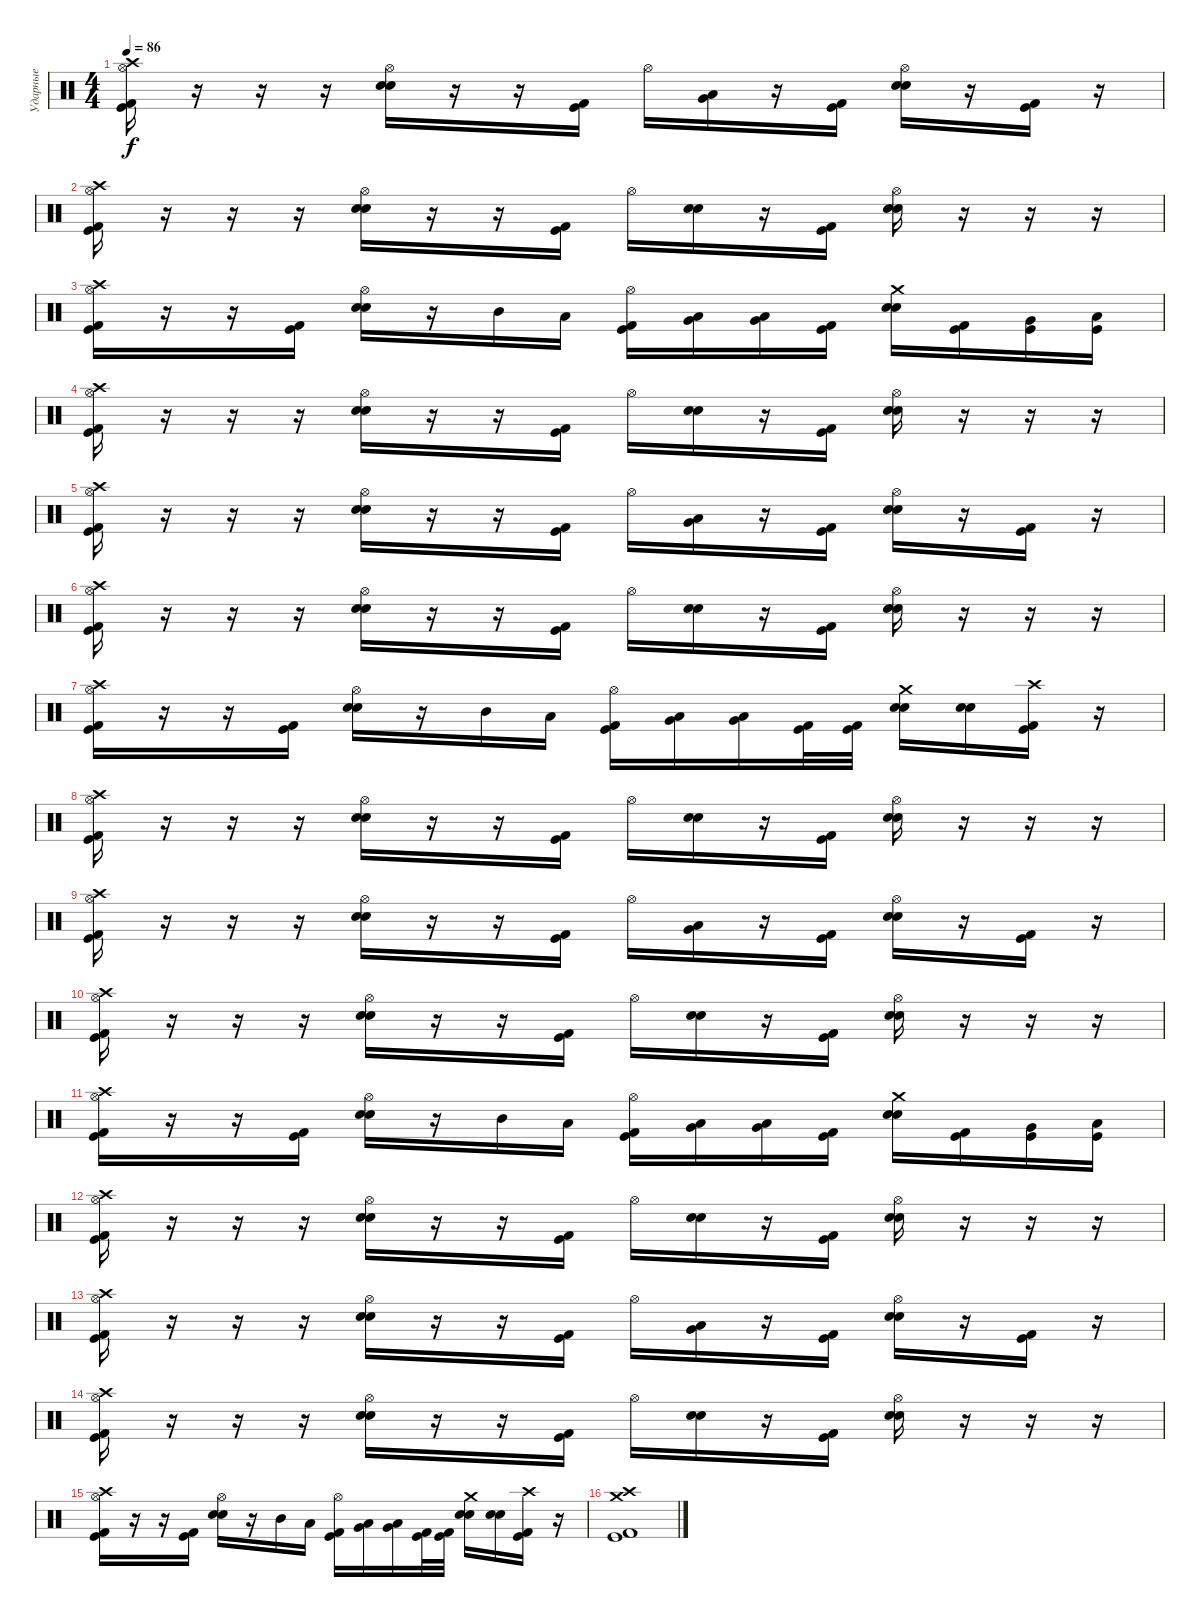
\track ("Ударные" "Ударные") {instrument percussion}
\staff {score}
\articulation defaults
\ts (4 4)
\tempo 86
\clef neutral
\ks c
("Hi-Hat (open)" "Crash high (hit)" "Kick (hit) 2" "Kick (hit)").16{dy f} r.16 r.16 r.16 ("Hi-Hat (open)" "Snare (hit)" "Electric Snare (hit)").16 r.16 r.16 ("Kick (hit) 2" "Kick (hit)").16 "Hi-Hat (open)".16 ("Low Tom (hit)" "Very Low Tom (hit)").16 r.16 ("Kick (hit) 2" "Kick (hit)").16 ("Hi-Hat (open)" "Snare (hit)" "Electric Snare (hit)").16 r.16 ("Kick (hit) 2" "Kick (hit)").16 r.16 |
("Hi-Hat (open)" "Crash high (hit)" "Kick (hit) 2" "Kick (hit)").16 r.16 r.16 r.16 ("Hi-Hat (open)" "Snare (hit)" "Electric Snare (hit)").16 r.16 r.16 ("Kick (hit) 2" "Kick (hit)").16 "Hi-Hat (open)".16 ("Electric Snare (hit)" "Snare (hit)").16 r.16 ("Kick (hit) 2" "Kick (hit)").16 ("Hi-Hat (open)" "Snare (hit)" "Electric Snare (hit)").16 r.16 r.16 r.16 |
("Hi-Hat (open)" "Crash high (hit)" "Kick (hit) 2" "Kick (hit)").16 r.16 r.16 ("Kick (hit) 2" "Kick (hit)").16 ("Hi-Hat (open)" "Snare (hit)" "Electric Snare (hit)").16 r.16 "Mid Tom (hit)".16 "Low Tom (hit)".16 ("Hi-Hat (open)" "Kick (hit) 2" "Kick (hit)").16 ("Low Tom (hit)" "Very Low Tom (hit)").16 ("Very Low Tom (hit)" "Low Floor Tom (hit)").16 ("Kick (hit) 2" "Kick (hit)").16 ("Crash medium (hit)" "Snare (hit)" "Electric Snare (hit)").16 ("Kick (hit) 2" "Kick (hit)").16 ("Very Low Tom (hit)" "Kick (hit)").16 ("Low Floor Tom (hit)" "Kick (hit)").16 |
("Hi-Hat (open)" "Crash high (hit)" "Kick (hit) 2" "Kick (hit)").16 r.16 r.16 r.16 ("Hi-Hat (open)" "Snare (hit)" "Electric Snare (hit)").16 r.16 r.16 ("Kick (hit) 2" "Kick (hit)").16 "Hi-Hat (open)".16 ("Electric Snare (hit)" "Snare (hit)").16 r.16 ("Kick (hit) 2" "Kick (hit)").16 ("Hi-Hat (open)" "Snare (hit)" "Electric Snare (hit)").16 r.16 r.16 r.16 |
("Hi-Hat (open)" "Crash high (hit)" "Kick (hit) 2" "Kick (hit)").16 r.16 r.16 r.16 ("Hi-Hat (open)" "Snare (hit)" "Electric Snare (hit)").16 r.16 r.16 ("Kick (hit) 2" "Kick (hit)").16 "Hi-Hat (open)".16 ("Low Tom (hit)" "Very Low Tom (hit)").16 r.16 ("Kick (hit) 2" "Kick (hit)").16 ("Hi-Hat (open)" "Snare (hit)" "Electric Snare (hit)").16 r.16 ("Kick (hit) 2" "Kick (hit)").16 r.16 |
("Hi-Hat (open)" "Crash high (hit)" "Kick (hit) 2" "Kick (hit)").16 r.16 r.16 r.16 ("Hi-Hat (open)" "Snare (hit)" "Electric Snare (hit)").16 r.16 r.16 ("Kick (hit) 2" "Kick (hit)").16 "Hi-Hat (open)".16 ("Electric Snare (hit)" "Snare (hit)").16 r.16 ("Kick (hit) 2" "Kick (hit)").16 ("Hi-Hat (open)" "Snare (hit)" "Electric Snare (hit)").16 r.16 r.16 r.16 |
("Hi-Hat (open)" "Crash high (hit)" "Kick (hit) 2" "Kick (hit)").16 r.16 r.16 ("Kick (hit) 2" "Kick (hit)").16 ("Hi-Hat (open)" "Snare (hit)" "Electric Snare (hit)").16 r.16 "Mid Tom (hit)".16 "Low Tom (hit)".16 ("Hi-Hat (open)" "Kick (hit) 2" "Kick (hit)").16 ("Low Tom (hit)" "Very Low Tom (hit)").16 ("Very Low Tom (hit)" "Low Floor Tom (hit)").16 ("Kick (hit) 2" "Kick (hit)").32 ("Kick (hit) 2" "Kick (hit)").32 ("Crash medium (hit)" "Snare (hit)" "Electric Snare (hit)").16 ("Electric Snare (hit)" "Snare (hit)").16 ("Crash high (hit)" "Kick (hit) 2" "Kick (hit)").16 r.16 |
("Hi-Hat (open)" "Crash high (hit)" "Kick (hit) 2" "Kick (hit)").16 r.16 r.16 r.16 ("Hi-Hat (open)" "Snare (hit)" "Electric Snare (hit)").16 r.16 r.16 ("Kick (hit) 2" "Kick (hit)").16 "Hi-Hat (open)".16 ("Electric Snare (hit)" "Snare (hit)").16 r.16 ("Kick (hit) 2" "Kick (hit)").16 ("Hi-Hat (open)" "Snare (hit)" "Electric Snare (hit)").16 r.16 r.16 r.16 |
("Hi-Hat (open)" "Crash high (hit)" "Kick (hit) 2" "Kick (hit)").16 r.16 r.16 r.16 ("Hi-Hat (open)" "Snare (hit)" "Electric Snare (hit)").16 r.16 r.16 ("Kick (hit) 2" "Kick (hit)").16 "Hi-Hat (open)".16 ("Low Tom (hit)" "Very Low Tom (hit)").16 r.16 ("Kick (hit) 2" "Kick (hit)").16 ("Hi-Hat (open)" "Snare (hit)" "Electric Snare (hit)").16 r.16 ("Kick (hit) 2" "Kick (hit)").16 r.16 |
("Hi-Hat (open)" "Crash high (hit)" "Kick (hit) 2" "Kick (hit)").16 r.16 r.16 r.16 ("Hi-Hat (open)" "Snare (hit)" "Electric Snare (hit)").16 r.16 r.16 ("Kick (hit) 2" "Kick (hit)").16 "Hi-Hat (open)".16 ("Electric Snare (hit)" "Snare (hit)").16 r.16 ("Kick (hit) 2" "Kick (hit)").16 ("Hi-Hat (open)" "Snare (hit)" "Electric Snare (hit)").16 r.16 r.16 r.16 |
("Hi-Hat (open)" "Crash high (hit)" "Kick (hit) 2" "Kick (hit)").16 r.16 r.16 ("Kick (hit) 2" "Kick (hit)").16 ("Hi-Hat (open)" "Snare (hit)" "Electric Snare (hit)").16 r.16 "Mid Tom (hit)".16 "Low Tom (hit)".16 ("Hi-Hat (open)" "Kick (hit) 2" "Kick (hit)").16 ("Low Tom (hit)" "Very Low Tom (hit)").16 ("Very Low Tom (hit)" "Low Floor Tom (hit)").16 ("Kick (hit) 2" "Kick (hit)").16 ("Crash medium (hit)" "Snare (hit)" "Electric Snare (hit)").16 ("Kick (hit) 2" "Kick (hit)").16 ("Very Low Tom (hit)" "Kick (hit)").16 ("Low Floor Tom (hit)" "Kick (hit)").16 |
("Hi-Hat (open)" "Crash high (hit)" "Kick (hit) 2" "Kick (hit)").16 r.16 r.16 r.16 ("Hi-Hat (open)" "Snare (hit)" "Electric Snare (hit)").16 r.16 r.16 ("Kick (hit) 2" "Kick (hit)").16 "Hi-Hat (open)".16 ("Electric Snare (hit)" "Snare (hit)").16 r.16 ("Kick (hit) 2" "Kick (hit)").16 ("Hi-Hat (open)" "Snare (hit)" "Electric Snare (hit)").16 r.16 r.16 r.16 |
("Hi-Hat (open)" "Crash high (hit)" "Kick (hit) 2" "Kick (hit)").16 r.16 r.16 r.16 ("Hi-Hat (open)" "Snare (hit)" "Electric Snare (hit)").16 r.16 r.16 ("Kick (hit) 2" "Kick (hit)").16 "Hi-Hat (open)".16 ("Low Tom (hit)" "Very Low Tom (hit)").16 r.16 ("Kick (hit) 2" "Kick (hit)").16 ("Hi-Hat (open)" "Snare (hit)" "Electric Snare (hit)").16 r.16 ("Kick (hit) 2" "Kick (hit)").16 r.16 |
("Hi-Hat (open)" "Crash high (hit)" "Kick (hit) 2" "Kick (hit)").16 r.16 r.16 r.16 ("Hi-Hat (open)" "Snare (hit)" "Electric Snare (hit)").16 r.16 r.16 ("Kick (hit) 2" "Kick (hit)").16 "Hi-Hat (open)".16 ("Electric Snare (hit)" "Snare (hit)").16 r.16 ("Kick (hit) 2" "Kick (hit)").16 ("Hi-Hat (open)" "Snare (hit)" "Electric Snare (hit)").16 r.16 r.16 r.16 |
("Hi-Hat (open)" "Crash high (hit)" "Kick (hit) 2" "Kick (hit)").16 r.16 r.16 ("Kick (hit) 2" "Kick (hit)").16 ("Hi-Hat (open)" "Snare (hit)" "Electric Snare (hit)").16 r.16 "Mid Tom (hit)".16 "Low Tom (hit)".16 ("Hi-Hat (open)" "Kick (hit) 2" "Kick (hit)").16 ("Low Tom (hit)" "Very Low Tom (hit)").16 ("Very Low Tom (hit)" "Low Floor Tom (hit)").16 ("Kick (hit) 2" "Kick (hit)").32 ("Kick (hit) 2" "Kick (hit)").32 ("Crash medium (hit)" "Snare (hit)" "Electric Snare (hit)").16 ("Electric Snare (hit)" "Snare (hit)").16 ("Crash high (hit)" "Kick (hit) 2" "Kick (hit)").16 r.16 |
("Crash high (hit)" "Crash medium (hit)" "Kick (hit) 2" "Kick (hit)").1
